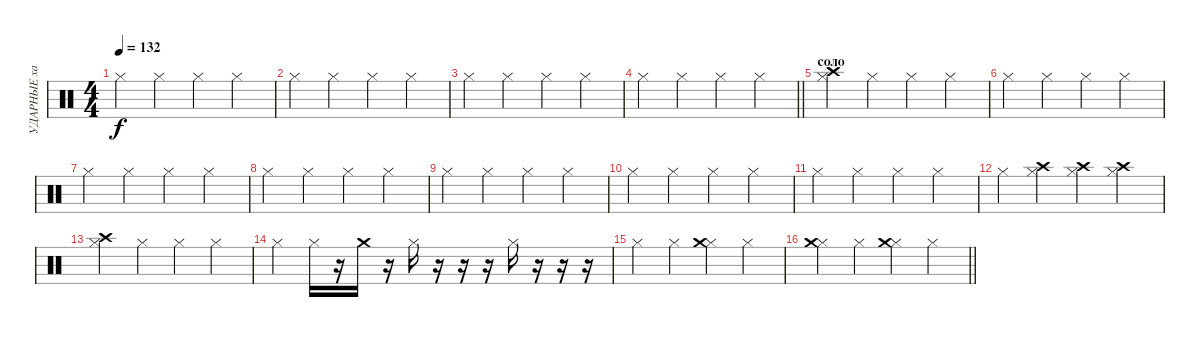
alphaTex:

\track ("УДАРНЫЕ хай хэт" "УДАРНЫЕ ха") {instrument percussion}
\staff {score}
\articulation defaults
\ts (4 4)
\tempo 132
\clef neutral
\ks c "Hi-Hat (closed)".4{dy f} "Hi-Hat (closed)".4 "Hi-Hat (closed)".4 "Hi-Hat (closed)".4
|
"Hi-Hat (closed)".4 "Hi-Hat (closed)".4 "Hi-Hat (closed)".4 "Hi-Hat (closed)".4 |
"Hi-Hat (closed)".4 "Hi-Hat (closed)".4 "Hi-Hat (closed)".4 "Hi-Hat (closed)".4 |
\barLineRight lightlight "Hi-Hat (closed)".4 "Hi-Hat (closed)".4 "Hi-Hat (closed)".4 "Hi-Hat (closed)".4
|
\section ("" "соло")
("Hi-Hat (closed)" "Crash high (hit)").4 "Hi-Hat (closed)".4 "Hi-Hat (closed)".4 "Hi-Hat (closed)".4 |
"Hi-Hat (closed)".4 "Hi-Hat (closed)".4 "Hi-Hat (closed)".4 "Hi-Hat (closed)".4 |
"Hi-Hat (closed)".4 "Hi-Hat (closed)".4 "Hi-Hat (closed)".4 "Hi-Hat (closed)".4 |
"Hi-Hat (closed)".4 "Hi-Hat (closed)".4 "Hi-Hat (closed)".4 "Hi-Hat (closed)".4 |
"Hi-Hat (closed)".4 "Hi-Hat (closed)".4 "Hi-Hat (closed)".4 "Hi-Hat (closed)".4 |
"Hi-Hat (closed)".4 "Hi-Hat (closed)".4 "Hi-Hat (closed)".4 "Hi-Hat (closed)".4 |
"Hi-Hat (closed)".4 "Hi-Hat (closed)".4 "Hi-Hat (closed)".4 "Hi-Hat (closed)".4 |
"Hi-Hat (closed)".4 ("Hi-Hat (closed)" "Crash high (hit)").4 ("Hi-Hat (closed)" "Crash high (hit)").4 ("Hi-Hat (closed)" "Crash high (hit)").4 |
("Hi-Hat (closed)" "Crash high (hit)").4 "Hi-Hat (closed)".4 "Hi-Hat (closed)".4 "Hi-Hat (closed)".4 |
"Hi-Hat (closed)".4 "Hi-Hat (closed)".16 r.16 "Crash medium (hit)".16 r.16 "Hi-Hat (closed)".16 r.16 r.16 r.16 "Hi-Hat (closed)".16 r.16 r.16 r.16 |
"Hi-Hat (closed)".4 "Hi-Hat (closed)".4 ("Hi-Hat (closed)" "Crash medium (hit)").4 "Hi-Hat (closed)".4 |
\barLineRight lightlight
("Hi-Hat (closed)" "Crash medium (hit)").4 "Hi-Hat (closed)".4 ("Hi-Hat (closed)" "Crash medium (hit)").4 "Hi-Hat (closed)".4
